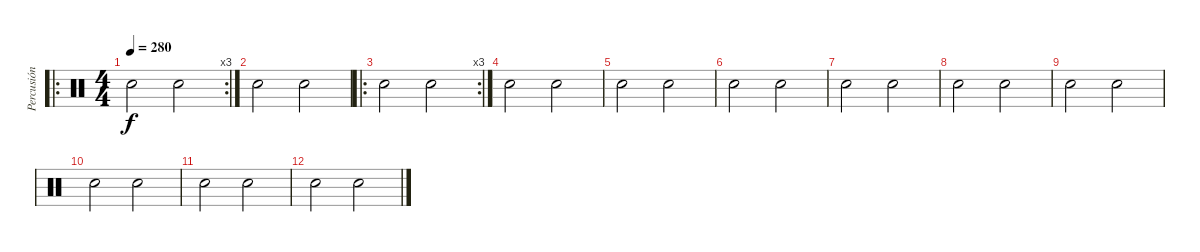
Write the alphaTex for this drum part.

\track ("Percusión" "Percusión") {instrument percussion}
\staff {score}
\articulation defaults
\ro
\rc 3
\ts (4 4)
\tempo 280
\clef neutral
\ks c "Hand Clap (hit)".2{dy f} "Hand Clap (hit)".2
|
"Hand Clap (hit)".2 "Hand Clap (hit)".2 |
\ro
\rc 3 "Hand Clap (hit)".2 "Hand Clap (hit)".2
|
"Hand Clap (hit)".2 "Hand Clap (hit)".2 |
"Hand Clap (hit)".2 "Hand Clap (hit)".2 |
"Hand Clap (hit)".2 "Hand Clap (hit)".2 |
"Hand Clap (hit)".2 "Hand Clap (hit)".2 |
"Hand Clap (hit)".2 "Hand Clap (hit)".2 |
"Hand Clap (hit)".2 "Hand Clap (hit)".2 |
"Hand Clap (hit)".2 "Hand Clap (hit)".2 |
"Hand Clap (hit)".2 "Hand Clap (hit)".2 |
"Hand Clap (hit)".2 "Hand Clap (hit)".2
